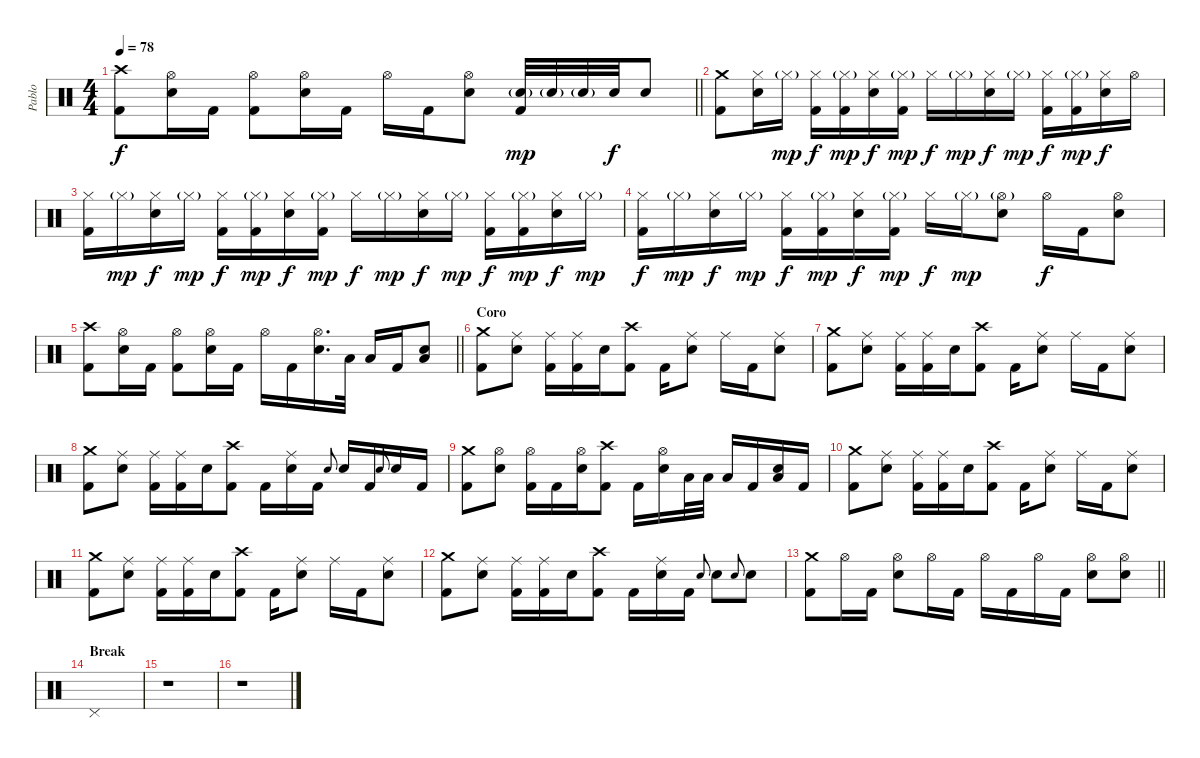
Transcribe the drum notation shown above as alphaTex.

\track ("Pablo" "Pablo") {instrument percussion}
\staff
\articulation defaults
\ts (4 4)
\tempo 78
\clef neutral
\barLineRight lightlight
\ks c
("Crash high (hit)" "Kick (hit) 2").8{dy f} ("Hi-Hat (open)" "Electric Snare (hit)").16 "Kick (hit) 2".16 ("Hi-Hat (open)" "Kick (hit) 2").8 ("Hi-Hat (open)" "Electric Snare (hit)").16 "Kick (hit) 2".16 "Hi-Hat (open)".16 "Kick (hit) 2".16 ("Hi-Hat (open)" "Electric Snare (hit)").8 ("Electric Snare (hit)"{g} "Kick (hit) 2").32{dy mp} "Electric Snare (hit)"{g}.32 "Electric Snare (hit)"{g}.32 "Electric Snare (hit)".32{dy f} "Electric Snare (hit)".8 |
("Crash medium (hit)" "Kick (hit) 2").8 ("Hi-Hat (closed)" "Electric Snare (hit)").16 "Hi-Hat (closed)"{g}.16{dy mp} ("Hi-Hat (closed)" "Kick (hit) 2").16{dy f} ("Hi-Hat (closed)"{g} "Kick (hit) 2").16{dy mp} ("Hi-Hat (closed)" "Electric Snare (hit)").16{dy f} ("Hi-Hat (closed)"{g} "Kick (hit) 2").16{dy mp} "Hi-Hat (closed)".16{dy f} "Hi-Hat (closed)"{g}.16{dy mp} ("Hi-Hat (closed)" "Electric Snare (hit)").16{dy f} "Hi-Hat (closed)"{g}.16{dy mp} ("Hi-Hat (closed)" "Kick (hit) 2").16{dy f} ("Hi-Hat (closed)"{g} "Kick (hit) 2").16{dy mp} ("Hi-Hat (closed)" "Electric Snare (hit)").16{dy f} "Hi-Hat (open)".16 |
("Hi-Hat (closed)" "Kick (hit) 2").16 "Hi-Hat (closed)"{g}.16{dy mp} ("Hi-Hat (closed)" "Electric Snare (hit)").16{dy f} "Hi-Hat (closed)"{g}.16{dy mp} ("Hi-Hat (closed)" "Kick (hit) 2").16{dy f} ("Hi-Hat (closed)"{g} "Kick (hit) 2").16{dy mp} ("Hi-Hat (closed)" "Electric Snare (hit)").16{dy f} ("Hi-Hat (closed)"{g} "Kick (hit) 2").16{dy mp} "Hi-Hat (closed)".16{dy f} "Hi-Hat (closed)"{g}.16{dy mp} ("Hi-Hat (closed)" "Electric Snare (hit)").16{dy f} "Hi-Hat (closed)"{g}.16{dy mp} ("Hi-Hat (closed)" "Kick (hit) 2").16{dy f} ("Hi-Hat (closed)"{g} "Kick (hit) 2").16{dy mp} ("Hi-Hat (closed)" "Electric Snare (hit)").16{dy f} "Hi-Hat (closed)"{g}.16{dy mp} |
("Hi-Hat (closed)" "Kick (hit) 2").16{dy f} "Hi-Hat (closed)"{g}.16{dy mp} ("Hi-Hat (closed)" "Electric Snare (hit)").16{dy f} "Hi-Hat (closed)"{g}.16{dy mp} ("Hi-Hat (closed)" "Kick (hit) 2").16{dy f} ("Hi-Hat (closed)"{g} "Kick (hit) 2").16{dy mp} ("Hi-Hat (closed)" "Electric Snare (hit)").16{dy f} ("Hi-Hat (closed)"{g} "Kick (hit) 2").16{dy mp} "Hi-Hat (closed)".16{dy f} "Hi-Hat (closed)"{g}.16{dy mp} ("Hi-Hat (open)"{g} "Electric Snare (hit)").8 "Hi-Hat (open)".16{dy f} "Kick (hit) 2".16 ("Hi-Hat (open)" "Electric Snare (hit)").8 |
\barLineRight lightlight
("Crash high (hit)" "Kick (hit) 2").8 ("Hi-Hat (open)" "Electric Snare (hit)").16 "Kick (hit) 2".16 ("Hi-Hat (open)" "Kick (hit) 2").8 ("Hi-Hat (open)" "Electric Snare (hit)").16 "Kick (hit) 2".16 "Hi-Hat (open)".16 "Kick (hit) 2".16 ("Hi-Hat (open)" "Electric Snare (hit)").16{d} "Low Tom (hit)".32 "Low Tom (hit)".16 "Kick (hit) 2".16 ("Electric Snare (hit)" "Low Floor Tom (hit)").8 |
\section ("" "Coro")
("Crash medium (hit)" "Kick (hit) 2").8 ("Ride (middle)" "Electric Snare (hit)").8 ("Ride (middle)" "Kick (hit) 2").16 ("Ride (middle)" "Kick (hit) 2").16 "Electric Snare (hit)".16 ("Crash high (hit)" "Kick (hit) 2").8 "Kick (hit) 2".16 ("Ride (middle)" "Electric Snare (hit)").8 "Ride (middle)".16 "Kick (hit) 2".16 ("Ride (middle)" "Electric Snare (hit)").8 |
("Crash medium (hit)" "Kick (hit) 2").8 ("Ride (middle)" "Electric Snare (hit)").8 ("Ride (middle)" "Kick (hit) 2").16 ("Ride (middle)" "Kick (hit) 2").16 "Electric Snare (hit)".16 ("Crash high (hit)" "Kick (hit) 2").8 "Kick (hit) 2".16 ("Ride (middle)" "Electric Snare (hit)").8 "Ride (middle)".16 "Kick (hit) 2".16 ("Ride (middle)" "Electric Snare (hit)").8 |
("Crash medium (hit)" "Kick (hit) 2").8 ("Ride (middle)" "Electric Snare (hit)").8 ("Ride (middle)" "Kick (hit) 2").16 ("Ride (middle)" "Kick (hit) 2").16 "Electric Snare (hit)".16 ("Crash high (hit)" "Kick (hit) 2").8 "Kick (hit) 2".16 ("Ride (middle)" "Electric Snare (hit)").16 "Kick (hit) 2".16 "Electric Snare (hit)".8{gr onbeat} "Electric Snare (hit)".16 "Kick (hit) 2".16 "Electric Snare (hit)".8{gr onbeat} "Electric Snare (hit)".16 "Kick (hit) 2".16 |
("Crash medium (hit)" "Kick (hit) 2").8 ("Hi-Hat (open)" "Electric Snare (hit)").8 ("Hi-Hat (open)" "Kick (hit) 2").16 "Kick (hit) 2".16 ("Hi-Hat (open)" "Electric Snare (hit)").16 ("Crash high (hit)" "Kick (hit) 2").8 "Kick (hit) 2".16 ("Hi-Hat (open)" "Electric Snare (hit)").16 "Low Tom (hit)".32 "Low Tom (hit)".32 "Low Floor Tom (hit)".16 "Kick (hit) 2".16 ("Electric Snare (hit)" "Low Floor Tom (hit)").16 "Kick (hit) 2".16 |
("Crash medium (hit)" "Kick (hit) 2").8 ("Ride (middle)" "Electric Snare (hit)").8 ("Ride (middle)" "Kick (hit) 2").16 ("Ride (middle)" "Kick (hit) 2").16 "Electric Snare (hit)".16 ("Crash high (hit)" "Kick (hit) 2").8 "Kick (hit) 2".16 ("Ride (middle)" "Electric Snare (hit)").8 "Ride (middle)".16 "Kick (hit) 2".16 ("Ride (middle)" "Electric Snare (hit)").8 |
("Crash medium (hit)" "Kick (hit) 2").8 ("Ride (middle)" "Electric Snare (hit)").8 ("Ride (middle)" "Kick (hit) 2").16 ("Ride (middle)" "Kick (hit) 2").16 "Electric Snare (hit)".16 ("Crash high (hit)" "Kick (hit) 2").8 "Kick (hit) 2".16 ("Ride (middle)" "Electric Snare (hit)").8 "Ride (middle)".16 "Kick (hit) 2".16 ("Ride (middle)" "Electric Snare (hit)").8 |
("Crash medium (hit)" "Kick (hit) 2").8 ("Ride (middle)" "Electric Snare (hit)").8 ("Ride (middle)" "Kick (hit) 2").16 ("Ride (middle)" "Kick (hit) 2").16 "Electric Snare (hit)".16 ("Crash high (hit)" "Kick (hit) 2").8 "Kick (hit) 2".16 ("Ride (middle)" "Electric Snare (hit)").16 "Kick (hit) 2".16 "Electric Snare (hit)".8{gr onbeat} "Electric Snare (hit)".8 "Electric Snare (hit)".8{gr onbeat} "Electric Snare (hit)".8 |
\barLineRight lightlight
("Crash medium (hit)" "Kick (hit) 2").8 "Hi-Hat (open)".16 "Kick (hit) 2".16 ("Hi-Hat (open)" "Electric Snare (hit)").8 "Hi-Hat (open)".16 "Kick (hit) 2".16 "Hi-Hat (open)".16 "Kick (hit) 2".16 "Hi-Hat (open)".16 "Kick (hit) 2".16 ("Hi-Hat (open)" "Electric Snare (hit)").8 ("Hi-Hat (open)" "Electric Snare (hit)").8 |
\section ("" "Break")
"Pedal Hi-Hat (hit)".1 |
r.1 |
r.1
